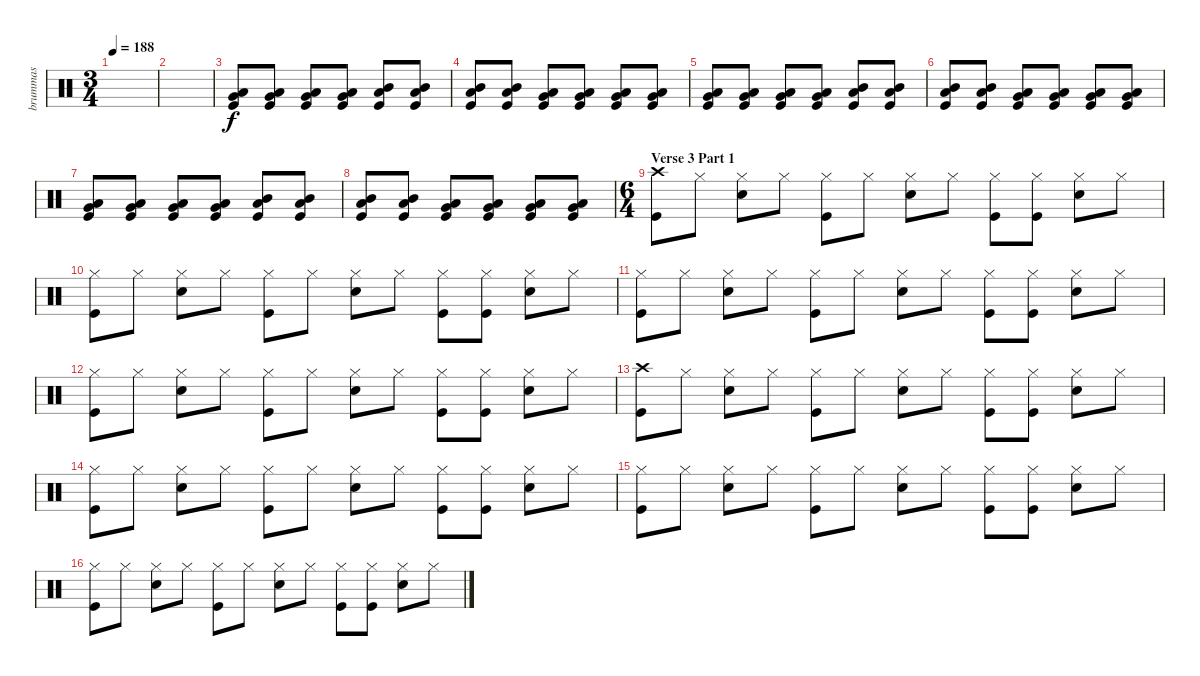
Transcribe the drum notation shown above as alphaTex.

\track ("brummas" "brummas") {instrument percussion}
\staff {score}
\articulation defaults
\ts (3 4)
\tempo 188
\clef neutral
\ks c
|
|
("Low Floor Tom (hit)" "Very Low Tom (hit)" "Kick (hit)").8 ("Low Floor Tom (hit)" "Very Low Tom (hit)" "Kick (hit)").8 ("Very Low Tom (hit)" "Low Tom (hit)" "Kick (hit)").8 ("Very Low Tom (hit)" "Low Tom (hit)" "Kick (hit)").8 ("Low Tom (hit)" "Mid Tom (hit)" "Kick (hit)").8 ("Low Tom (hit)" "Mid Tom (hit)" "Kick (hit)").8 |
("Low Tom (hit)" "Mid Tom (hit)" "Kick (hit)").8 ("Low Tom (hit)" "Mid Tom (hit)" "Kick (hit)").8 ("Very Low Tom (hit)" "Low Tom (hit)" "Kick (hit)").8 ("Very Low Tom (hit)" "Low Tom (hit)" "Kick (hit)").8 ("Low Floor Tom (hit)" "Very Low Tom (hit)" "Kick (hit)").8 ("Low Floor Tom (hit)" "Very Low Tom (hit)" "Kick (hit)").8 |
("Low Floor Tom (hit)" "Very Low Tom (hit)" "Kick (hit)").8 ("Low Floor Tom (hit)" "Very Low Tom (hit)" "Kick (hit)").8 ("Very Low Tom (hit)" "Low Tom (hit)" "Kick (hit)").8 ("Very Low Tom (hit)" "Low Tom (hit)" "Kick (hit)").8 ("Low Tom (hit)" "Mid Tom (hit)" "Kick (hit)").8 ("Low Tom (hit)" "Mid Tom (hit)" "Kick (hit)").8 |
("Low Tom (hit)" "Mid Tom (hit)" "Kick (hit)").8 ("Low Tom (hit)" "Mid Tom (hit)" "Kick (hit)").8 ("Very Low Tom (hit)" "Low Tom (hit)" "Kick (hit)").8 ("Very Low Tom (hit)" "Low Tom (hit)" "Kick (hit)").8 ("Low Floor Tom (hit)" "Very Low Tom (hit)" "Kick (hit)").8 ("Low Floor Tom (hit)" "Very Low Tom (hit)" "Kick (hit)").8 |
("Low Floor Tom (hit)" "Very Low Tom (hit)" "Kick (hit)").8 ("Low Floor Tom (hit)" "Very Low Tom (hit)" "Kick (hit)").8 ("Very Low Tom (hit)" "Low Tom (hit)" "Kick (hit)").8 ("Very Low Tom (hit)" "Low Tom (hit)" "Kick (hit)").8 ("Low Tom (hit)" "Mid Tom (hit)" "Kick (hit)").8 ("Low Tom (hit)" "Mid Tom (hit)" "Kick (hit)").8 |
("Low Tom (hit)" "Mid Tom (hit)" "Kick (hit)").8 ("Low Tom (hit)" "Mid Tom (hit)" "Kick (hit)").8 ("Very Low Tom (hit)" "Low Tom (hit)" "Kick (hit)").8 ("Very Low Tom (hit)" "Low Tom (hit)" "Kick (hit)").8 ("Low Floor Tom (hit)" "Very Low Tom (hit)" "Kick (hit)").8 ("Low Floor Tom (hit)" "Very Low Tom (hit)" "Kick (hit)").8 |
\ts (6 4)
\section ("" "Verse 3 Part 1")
("Crash high (hit)" "Kick (hit)").8 "Hi-Hat (closed)".8 ("Hi-Hat (closed)" "Snare (hit) 2").8 "Hi-Hat (closed)".8 ("Hi-Hat (closed)" "Kick (hit)").8 "Hi-Hat (closed)".8 ("Hi-Hat (closed)" "Snare (hit) 2").8 "Hi-Hat (closed)".8 ("Hi-Hat (closed)" "Kick (hit)").8 ("Hi-Hat (closed)" "Kick (hit)").8 ("Hi-Hat (closed)" "Snare (hit) 2").8 "Hi-Hat (closed)".8 |
("Hi-Hat (closed)" "Kick (hit)").8 "Hi-Hat (closed)".8 ("Hi-Hat (closed)" "Snare (hit) 2").8 "Hi-Hat (closed)".8 ("Hi-Hat (closed)" "Kick (hit)").8 "Hi-Hat (closed)".8 ("Hi-Hat (closed)" "Snare (hit) 2").8 "Hi-Hat (closed)".8 ("Hi-Hat (closed)" "Kick (hit)").8 ("Hi-Hat (closed)" "Kick (hit)").8 ("Hi-Hat (closed)" "Snare (hit) 2").8 "Hi-Hat (closed)".8 |
("Hi-Hat (closed)" "Kick (hit)").8 "Hi-Hat (closed)".8 ("Hi-Hat (closed)" "Snare (hit) 2").8 "Hi-Hat (closed)".8 ("Hi-Hat (closed)" "Kick (hit)").8 "Hi-Hat (closed)".8 ("Hi-Hat (closed)" "Snare (hit) 2").8 "Hi-Hat (closed)".8 ("Hi-Hat (closed)" "Kick (hit)").8 ("Hi-Hat (closed)" "Kick (hit)").8 ("Hi-Hat (closed)" "Snare (hit) 2").8 "Hi-Hat (closed)".8 |
("Hi-Hat (closed)" "Kick (hit)").8 "Hi-Hat (closed)".8 ("Hi-Hat (closed)" "Snare (hit) 2").8 "Hi-Hat (closed)".8 ("Hi-Hat (closed)" "Kick (hit)").8 "Hi-Hat (closed)".8 ("Hi-Hat (closed)" "Snare (hit) 2").8 "Hi-Hat (closed)".8 ("Hi-Hat (closed)" "Kick (hit)").8 ("Hi-Hat (closed)" "Kick (hit)").8 ("Hi-Hat (closed)" "Snare (hit) 2").8 "Hi-Hat (closed)".8 |
("Crash high (hit)" "Kick (hit)").8 "Hi-Hat (closed)".8 ("Hi-Hat (closed)" "Snare (hit) 2").8 "Hi-Hat (closed)".8 ("Hi-Hat (closed)" "Kick (hit)").8 "Hi-Hat (closed)".8 ("Hi-Hat (closed)" "Snare (hit) 2").8 "Hi-Hat (closed)".8 ("Hi-Hat (closed)" "Kick (hit)").8 ("Hi-Hat (closed)" "Kick (hit)").8 ("Hi-Hat (closed)" "Snare (hit) 2").8 "Hi-Hat (closed)".8 |
("Hi-Hat (closed)" "Kick (hit)").8 "Hi-Hat (closed)".8 ("Hi-Hat (closed)" "Snare (hit) 2").8 "Hi-Hat (closed)".8 ("Hi-Hat (closed)" "Kick (hit)").8 "Hi-Hat (closed)".8 ("Hi-Hat (closed)" "Snare (hit) 2").8 "Hi-Hat (closed)".8 ("Hi-Hat (closed)" "Kick (hit)").8 ("Hi-Hat (closed)" "Kick (hit)").8 ("Hi-Hat (closed)" "Snare (hit) 2").8 "Hi-Hat (closed)".8 |
("Hi-Hat (closed)" "Kick (hit)").8 "Hi-Hat (closed)".8 ("Hi-Hat (closed)" "Snare (hit) 2").8 "Hi-Hat (closed)".8 ("Hi-Hat (closed)" "Kick (hit)").8 "Hi-Hat (closed)".8 ("Hi-Hat (closed)" "Snare (hit) 2").8 "Hi-Hat (closed)".8 ("Hi-Hat (closed)" "Kick (hit)").8 ("Hi-Hat (closed)" "Kick (hit)").8 ("Hi-Hat (closed)" "Snare (hit) 2").8 "Hi-Hat (closed)".8 |
("Hi-Hat (closed)" "Kick (hit)").8 "Hi-Hat (closed)".8 ("Hi-Hat (closed)" "Snare (hit) 2").8 "Hi-Hat (closed)".8 ("Hi-Hat (closed)" "Kick (hit)").8 "Hi-Hat (closed)".8 ("Hi-Hat (closed)" "Snare (hit) 2").8 "Hi-Hat (closed)".8 ("Hi-Hat (closed)" "Kick (hit)").8 ("Hi-Hat (closed)" "Kick (hit)").8 ("Hi-Hat (closed)" "Snare (hit) 2").8 "Hi-Hat (closed)".8
